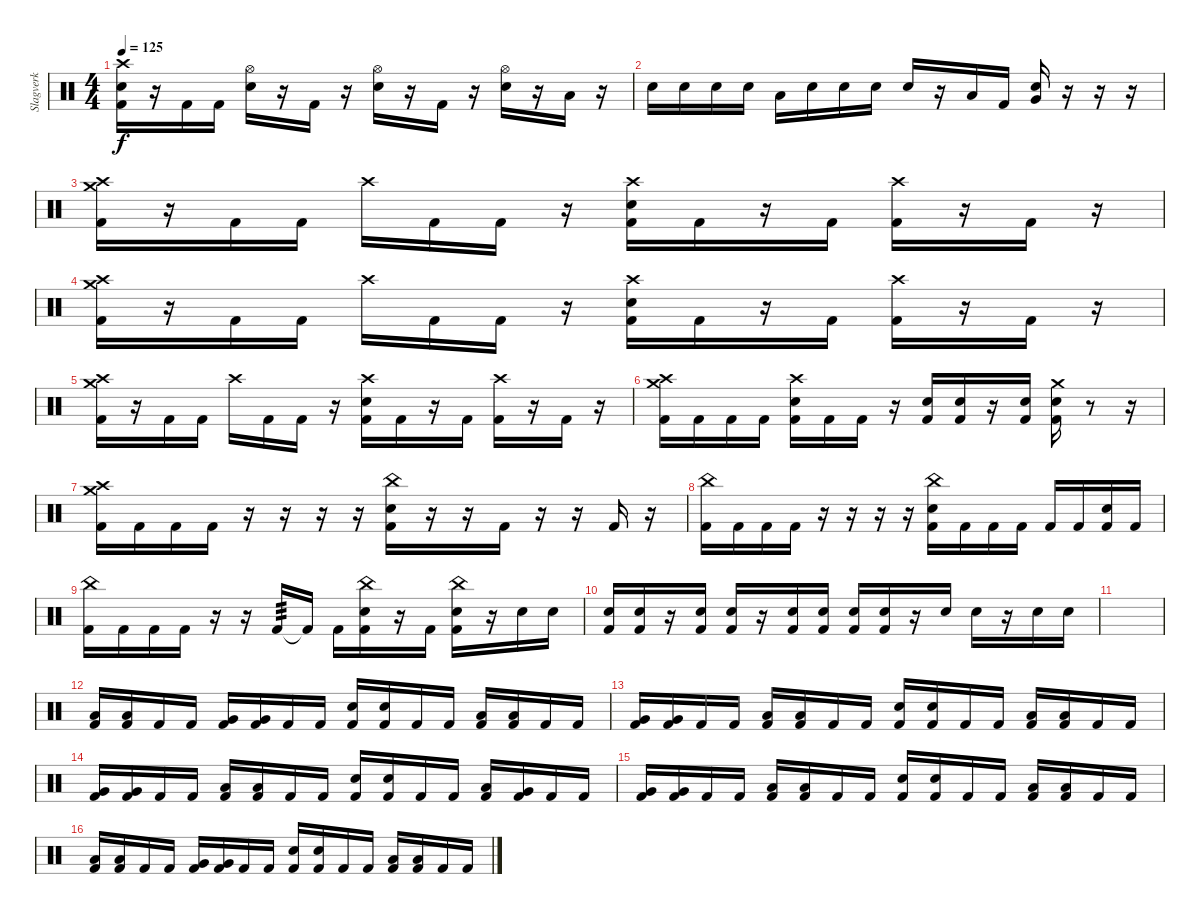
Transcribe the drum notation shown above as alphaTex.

\track ("Slagverk" "Slagverk") {instrument percussion}
\staff {score}
\articulation defaults
\ts (4 4)
\tempo 125
\clef neutral
\ks c
("Kick (hit) 2" "Snare (hit) 2" "Crash high (hit)").16{dy f} r.16 "Kick (hit) 2".16 "Kick (hit) 2".16 ("Snare (hit) 2" "Hi-Hat (open)").16 r.16 "Kick (hit) 2".16 r.16 ("Snare (hit) 2" "Hi-Hat (open)").16 r.16 "Kick (hit) 2".16 r.16 ("Snare (hit) 2" "Hi-Hat (open)").16 r.16 "Low Tom (hit)".16 r.16 |
"Snare (hit) 2".16 "Snare (hit) 2".16 "Snare (hit) 2".16 "Snare (hit) 2".16 "Low Tom (hit)".16 "Snare (hit) 2".16 "Snare (hit) 2".16 "Snare (hit) 2".16 "Snare (hit) 2".16 r.16 "Low Tom (hit)".16 "Kick (hit) 2".16 ("Very Low Tom (hit)" "Snare (hit) 2").16 r.16 r.16 r.16 |
("Kick (hit) 2" "Crash high (hit)" "Crash medium (hit)").16 r.16 "Kick (hit) 2".16 "Kick (hit) 2".16 "Crash high (hit)".16 "Kick (hit) 2".16 "Kick (hit) 2".16 r.16 ("Kick (hit) 2" "Snare (hit) 2" "Crash high (hit)").16 "Kick (hit) 2".16 r.16 "Kick (hit) 2".16 ("Kick (hit) 2" "Crash high (hit)").16 r.16 "Kick (hit) 2".16 r.16 |
("Kick (hit) 2" "Crash high (hit)" "Crash medium (hit)").16 r.16 "Kick (hit) 2".16 "Kick (hit) 2".16 "Crash high (hit)".16 "Kick (hit) 2".16 "Kick (hit) 2".16 r.16 ("Kick (hit) 2" "Snare (hit) 2" "Crash high (hit)").16 "Kick (hit) 2".16 r.16 "Kick (hit) 2".16 ("Kick (hit) 2" "Crash high (hit)").16 r.16 "Kick (hit) 2".16 r.16 |
("Kick (hit) 2" "Crash high (hit)" "Crash medium (hit)").16 r.16 "Kick (hit) 2".16 "Kick (hit) 2".16 "Crash high (hit)".16 "Kick (hit) 2".16 "Kick (hit) 2".16 r.16 ("Kick (hit) 2" "Snare (hit) 2" "Crash high (hit)").16 "Kick (hit) 2".16 r.16 "Kick (hit) 2".16 ("Kick (hit) 2" "Crash high (hit)").16 r.16 "Kick (hit) 2".16 r.16 |
("Kick (hit) 2" "Crash high (hit)" "Crash medium (hit)").16 "Kick (hit) 2".16 "Kick (hit) 2".16 "Kick (hit) 2".16 ("Kick (hit) 2" "Snare (hit) 2" "Crash high (hit)").16 "Kick (hit) 2".16 "Kick (hit) 2".16 r.16 ("Kick (hit) 2" "Snare (hit) 2").16 ("Kick (hit) 2" "Snare (hit) 2").16 r.16 ("Kick (hit) 2" "Snare (hit) 2").16 ("Kick (hit) 2" "Snare (hit) 2" "Crash medium (hit)").16 r.8 r.16 |
("Kick (hit) 2" "Crash high (hit)" "Crash medium (hit)").16 "Kick (hit) 2".16 "Kick (hit) 2".16 "Kick (hit) 2".16 r.16 r.16 r.16 r.16 ("Kick (hit) 2" "Snare (hit) 2" "China (hit)").16 r.16 r.16 "Kick (hit) 2".16 r.16 r.16 "Kick (hit) 2".16 r.16 |
("Kick (hit) 2" "China (hit)").16 "Kick (hit) 2".16 "Kick (hit) 2".16 "Kick (hit) 2".16 r.16 r.16 r.16 r.16 ("Kick (hit) 2" "Snare (hit) 2" "China (hit)").16 "Kick (hit) 2".16 "Kick (hit) 2".16 "Kick (hit) 2".16 "Kick (hit) 2".16 "Kick (hit) 2".16 ("Kick (hit) 2" "Snare (hit) 2").16 "Kick (hit) 2".16 |
("Kick (hit) 2" "China (hit)").16 "Kick (hit) 2".16 "Kick (hit) 2".16 "Kick (hit) 2".16 r.16 r.16 "Kick (hit) 2".16{tp 3} "Kick (hit) 2"{t}.16 "Kick (hit) 2".16 ("Kick (hit) 2" "Snare (hit) 2" "China (hit)").16 r.16 "Kick (hit) 2".16 ("Kick (hit) 2" "Snare (hit) 2" "China (hit)").16 r.16 "Snare (hit) 2".16 "Snare (hit) 2".16 |
("Kick (hit) 2" "Snare (hit) 2").16 ("Kick (hit) 2" "Snare (hit) 2").16 r.16 ("Kick (hit) 2" "Snare (hit) 2").16 ("Kick (hit) 2" "Snare (hit) 2").16 r.16 ("Kick (hit) 2" "Snare (hit) 2").16 ("Kick (hit) 2" "Snare (hit) 2").16 ("Kick (hit) 2" "Snare (hit) 2").16 ("Kick (hit) 2" "Snare (hit) 2").16 r.16 "Snare (hit) 2".16 "Snare (hit) 2".16 r.16 "Snare (hit) 2".16 "Snare (hit) 2".16 |
|
("Kick (hit) 2" "Low Tom (hit)").16 ("Kick (hit) 2" "Low Tom (hit)").16 "Kick (hit) 2".16 "Kick (hit) 2".16 ("Kick (hit) 2" "Very Low Tom (hit)").16 ("Kick (hit) 2" "Very Low Tom (hit)").16 "Kick (hit) 2".16 "Kick (hit) 2".16 ("Kick (hit) 2" "Snare (hit) 2").16 ("Kick (hit) 2" "Snare (hit) 2").16 "Kick (hit) 2".16 "Kick (hit) 2".16 ("Kick (hit) 2" "Low Tom (hit)").16 ("Kick (hit) 2" "Low Tom (hit)").16 "Kick (hit) 2".16 "Kick (hit) 2".16 |
("Kick (hit) 2" "Very Low Tom (hit)").16 ("Kick (hit) 2" "Very Low Tom (hit)").16 "Kick (hit) 2".16 "Kick (hit) 2".16 ("Kick (hit) 2" "Low Tom (hit)").16 ("Kick (hit) 2" "Low Tom (hit)").16 "Kick (hit) 2".16 "Kick (hit) 2".16 ("Kick (hit) 2" "Snare (hit) 2").16 ("Kick (hit) 2" "Snare (hit) 2").16 "Kick (hit) 2".16 "Kick (hit) 2".16 ("Kick (hit) 2" "Low Tom (hit)").16 ("Kick (hit) 2" "Low Tom (hit)").16 "Kick (hit) 2".16 "Kick (hit) 2".16 |
("Kick (hit) 2" "Very Low Tom (hit)").16 ("Kick (hit) 2" "Very Low Tom (hit)").16 "Kick (hit) 2".16 "Kick (hit) 2".16 ("Kick (hit) 2" "Low Tom (hit)").16 ("Kick (hit) 2" "Low Tom (hit)").16 "Kick (hit) 2".16 "Kick (hit) 2".16 ("Kick (hit) 2" "Snare (hit) 2").16 ("Kick (hit) 2" "Snare (hit) 2").16 "Kick (hit) 2".16 "Kick (hit) 2".16 ("Kick (hit) 2" "Low Tom (hit)").16 ("Kick (hit) 2" "Very Low Tom (hit)").16 "Kick (hit) 2".16 "Kick (hit) 2".16 |
("Kick (hit) 2" "Very Low Tom (hit)").16 ("Kick (hit) 2" "Very Low Tom (hit)").16 "Kick (hit) 2".16 "Kick (hit) 2".16 ("Kick (hit) 2" "Low Tom (hit)").16 ("Kick (hit) 2" "Low Tom (hit)").16 "Kick (hit) 2".16 "Kick (hit) 2".16 ("Kick (hit) 2" "Snare (hit) 2").16 ("Kick (hit) 2" "Snare (hit) 2").16 "Kick (hit) 2".16 "Kick (hit) 2".16 ("Kick (hit) 2" "Low Tom (hit)").16 ("Kick (hit) 2" "Low Tom (hit)").16 "Kick (hit) 2".16 "Kick (hit) 2".16 |
("Kick (hit) 2" "Low Tom (hit)").16 ("Kick (hit) 2" "Low Tom (hit)").16 "Kick (hit) 2".16 "Kick (hit) 2".16 ("Kick (hit) 2" "Very Low Tom (hit)").16 ("Kick (hit) 2" "Very Low Tom (hit)").16 "Kick (hit) 2".16 "Kick (hit) 2".16 ("Kick (hit) 2" "Snare (hit) 2").16 ("Kick (hit) 2" "Snare (hit) 2").16 "Kick (hit) 2".16 "Kick (hit) 2".16 ("Kick (hit) 2" "Low Tom (hit)").16 ("Kick (hit) 2" "Low Tom (hit)").16 "Kick (hit) 2".16 "Kick (hit) 2".16
